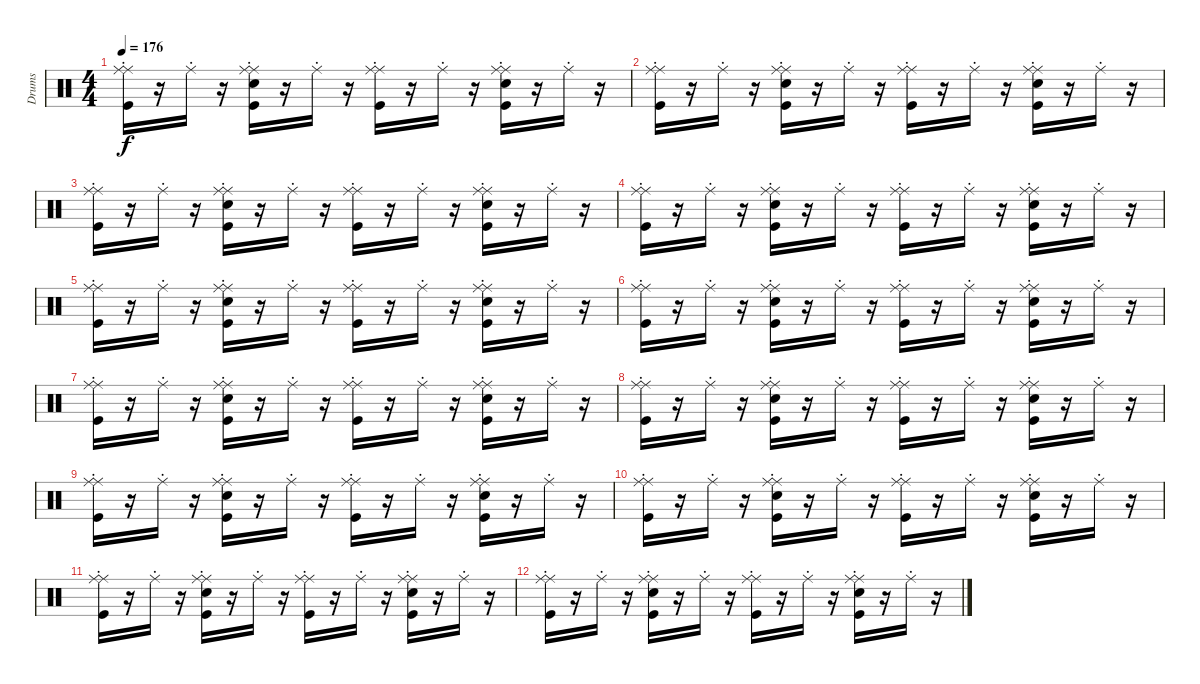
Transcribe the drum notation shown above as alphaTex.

\track ("Drums" "Drums") {instrument percussion}
\staff {score}
\articulation defaults
\ts (4 4)
\tempo 176
\clef neutral
\ks c
("Ride (middle)" "Kick (hit)" "Ride (choke)").16{dy f} r.16 "Ride (choke)".16 r.16 ("Ride (middle)" "Kick (hit)" "Snare (hit) 2" "Ride (choke)").16 r.16 "Ride (choke)".16 r.16 ("Ride (middle)" "Kick (hit)" "Ride (choke)").16 r.16 "Ride (choke)".16 r.16 ("Ride (middle)" "Kick (hit)" "Snare (hit) 2" "Ride (choke)").16 r.16 "Ride (choke)".16 r.16 |
("Ride (middle)" "Kick (hit)" "Ride (choke)").16 r.16 "Ride (choke)".16 r.16 ("Ride (middle)" "Kick (hit)" "Snare (hit) 2" "Ride (choke)").16 r.16 "Ride (choke)".16 r.16 ("Ride (middle)" "Kick (hit)" "Ride (choke)").16 r.16 "Ride (choke)".16 r.16 ("Ride (middle)" "Kick (hit)" "Snare (hit) 2" "Ride (choke)").16 r.16 "Ride (choke)".16 r.16 |
("Ride (middle)" "Kick (hit)" "Ride (choke)").16 r.16 "Ride (choke)".16 r.16 ("Ride (middle)" "Kick (hit)" "Snare (hit) 2" "Ride (choke)").16 r.16 "Ride (choke)".16 r.16 ("Ride (middle)" "Kick (hit)" "Ride (choke)").16 r.16 "Ride (choke)".16 r.16 ("Ride (middle)" "Kick (hit)" "Snare (hit) 2" "Ride (choke)").16 r.16 "Ride (choke)".16 r.16 |
("Ride (middle)" "Kick (hit)" "Ride (choke)").16 r.16 "Ride (choke)".16 r.16 ("Ride (middle)" "Kick (hit)" "Snare (hit) 2" "Ride (choke)").16 r.16 "Ride (choke)".16 r.16 ("Ride (middle)" "Kick (hit)" "Ride (choke)").16 r.16 "Ride (choke)".16 r.16 ("Ride (middle)" "Kick (hit)" "Snare (hit) 2" "Ride (choke)").16 r.16 "Ride (choke)".16 r.16 |
("Ride (middle)" "Kick (hit)" "Ride (choke)").16 r.16 "Ride (choke)".16 r.16 ("Ride (middle)" "Kick (hit)" "Snare (hit) 2" "Ride (choke)").16 r.16 "Ride (choke)".16 r.16 ("Ride (middle)" "Kick (hit)" "Ride (choke)").16 r.16 "Ride (choke)".16 r.16 ("Ride (middle)" "Kick (hit)" "Snare (hit) 2" "Ride (choke)").16 r.16 "Ride (choke)".16 r.16 |
("Ride (middle)" "Kick (hit)" "Ride (choke)").16 r.16 "Ride (choke)".16 r.16 ("Ride (middle)" "Kick (hit)" "Snare (hit) 2" "Ride (choke)").16 r.16 "Ride (choke)".16 r.16 ("Ride (middle)" "Kick (hit)" "Ride (choke)").16 r.16 "Ride (choke)".16 r.16 ("Ride (middle)" "Kick (hit)" "Snare (hit) 2" "Ride (choke)").16 r.16 "Ride (choke)".16 r.16 |
("Ride (middle)" "Kick (hit)" "Ride (choke)").16 r.16 "Ride (choke)".16 r.16 ("Ride (middle)" "Kick (hit)" "Snare (hit) 2" "Ride (choke)").16 r.16 "Ride (choke)".16 r.16 ("Ride (middle)" "Kick (hit)" "Ride (choke)").16 r.16 "Ride (choke)".16 r.16 ("Ride (middle)" "Kick (hit)" "Snare (hit) 2" "Ride (choke)").16 r.16 "Ride (choke)".16 r.16 |
("Ride (middle)" "Kick (hit)" "Ride (choke)").16 r.16 "Ride (choke)".16 r.16 ("Ride (middle)" "Kick (hit)" "Snare (hit) 2" "Ride (choke)").16 r.16 "Ride (choke)".16 r.16 ("Ride (middle)" "Kick (hit)" "Ride (choke)").16 r.16 "Ride (choke)".16 r.16 ("Ride (middle)" "Kick (hit)" "Snare (hit) 2" "Ride (choke)").16 r.16 "Ride (choke)".16 r.16 |
("Ride (middle)" "Kick (hit)" "Ride (choke)").16 r.16 "Ride (choke)".16 r.16 ("Ride (middle)" "Kick (hit)" "Snare (hit) 2" "Ride (choke)").16 r.16 "Ride (choke)".16 r.16 ("Ride (middle)" "Kick (hit)" "Ride (choke)").16 r.16 "Ride (choke)".16 r.16 ("Ride (middle)" "Kick (hit)" "Snare (hit) 2" "Ride (choke)").16 r.16 "Ride (choke)".16 r.16 |
("Ride (middle)" "Kick (hit)" "Ride (choke)").16 r.16 "Ride (choke)".16 r.16 ("Ride (middle)" "Kick (hit)" "Snare (hit) 2" "Ride (choke)").16 r.16 "Ride (choke)".16 r.16 ("Ride (middle)" "Kick (hit)" "Ride (choke)").16 r.16 "Ride (choke)".16 r.16 ("Ride (middle)" "Kick (hit)" "Snare (hit) 2" "Ride (choke)").16 r.16 "Ride (choke)".16 r.16 |
("Ride (middle)" "Kick (hit)" "Ride (choke)").16 r.16 "Ride (choke)".16 r.16 ("Ride (middle)" "Kick (hit)" "Snare (hit) 2" "Ride (choke)").16 r.16 "Ride (choke)".16 r.16 ("Ride (middle)" "Kick (hit)" "Ride (choke)").16 r.16 "Ride (choke)".16 r.16 ("Ride (middle)" "Kick (hit)" "Snare (hit) 2" "Ride (choke)").16 r.16 "Ride (choke)".16 r.16 |
("Ride (middle)" "Kick (hit)" "Ride (choke)").16 r.16 "Ride (choke)".16 r.16 ("Ride (middle)" "Kick (hit)" "Snare (hit) 2" "Ride (choke)").16 r.16 "Ride (choke)".16 r.16 ("Ride (middle)" "Kick (hit)" "Ride (choke)").16 r.16 "Ride (choke)".16 r.16 ("Ride (middle)" "Kick (hit)" "Snare (hit) 2" "Ride (choke)").16 r.16 "Ride (choke)".16 r.16
